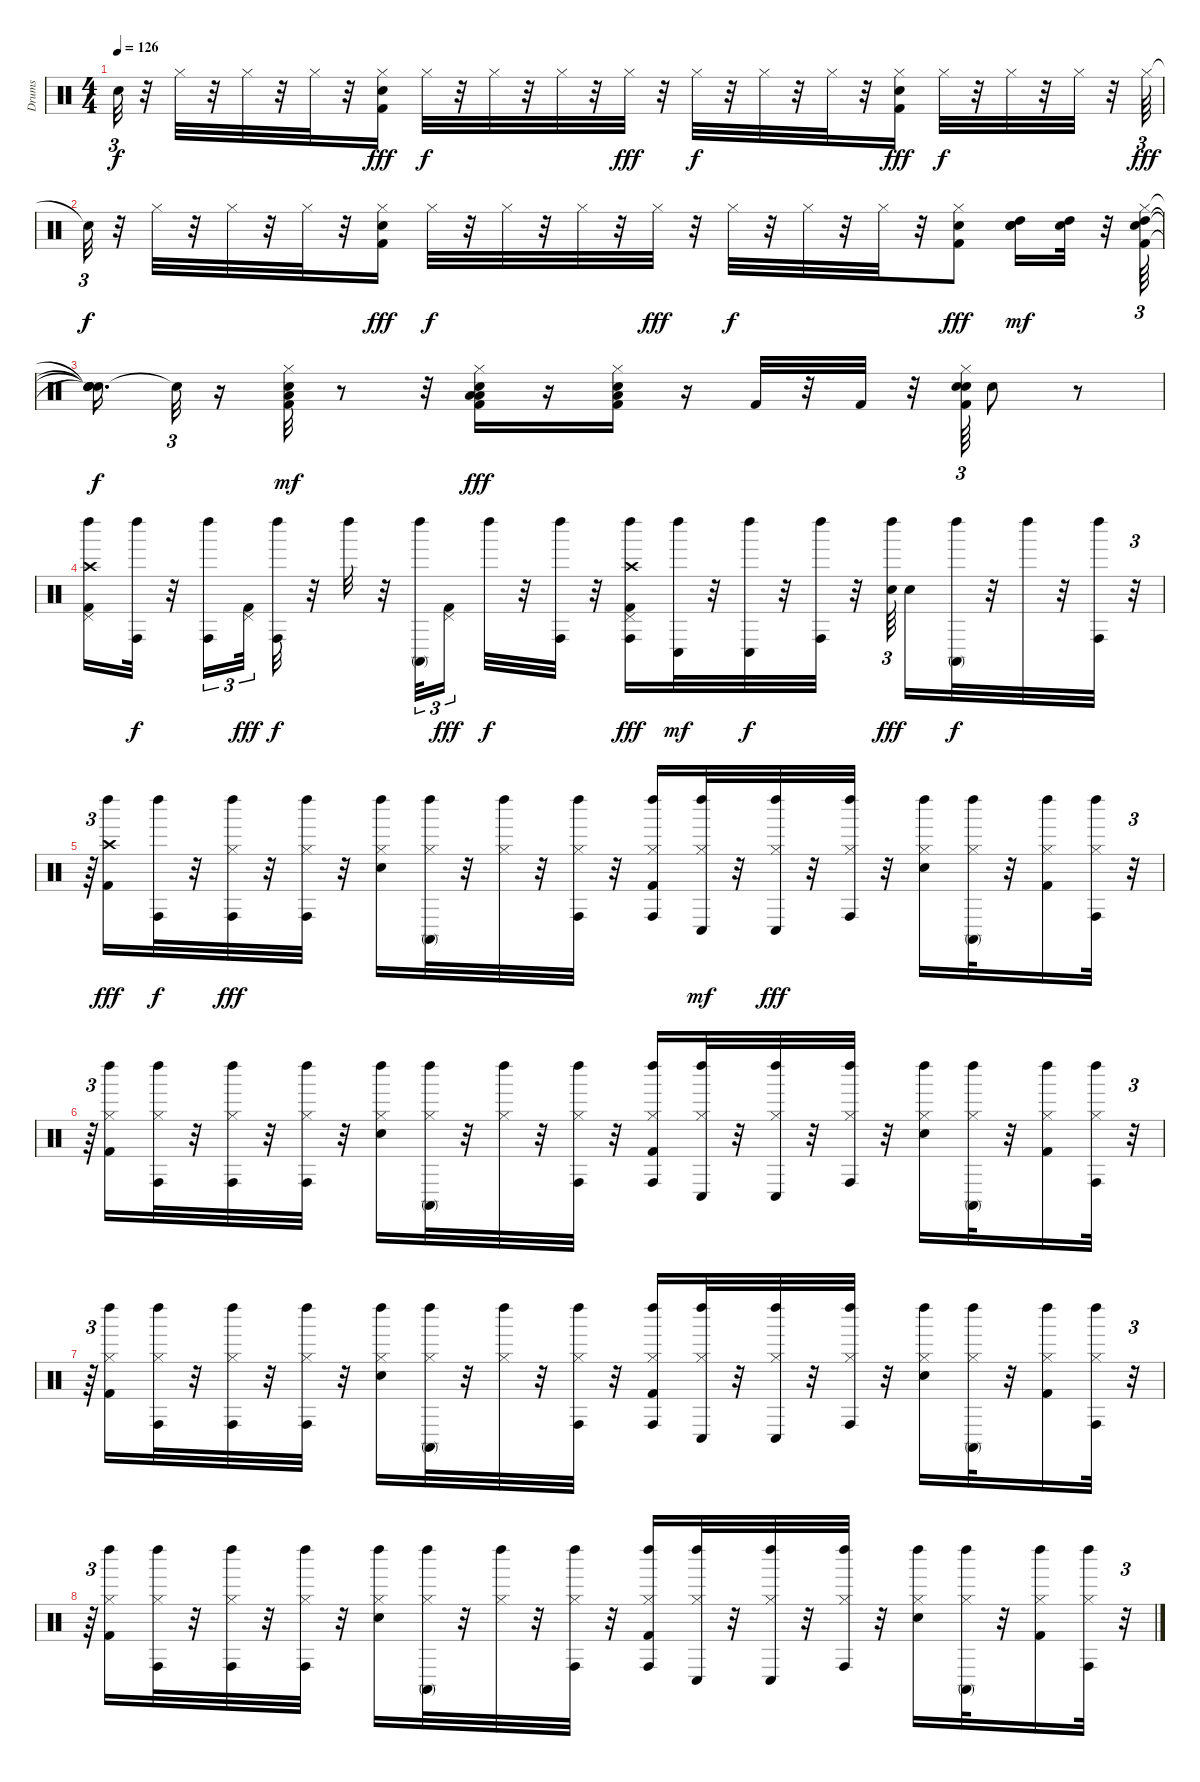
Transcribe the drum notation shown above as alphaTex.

\track ("Drums" "Drums") {instrument percussion}
\staff {score}
\articulation defaults
\ts (4 4)
\tempo 126
\clef neutral
\ks c "Snare (hit)"{t}.32{tu (3 2) dy f}
r.32 "Hi-Hat (closed)".32 r.32 "Hi-Hat (closed)".32 r.32 "Hi-Hat (closed)".32 r.32 ("Kick (hit) 2" "Hi-Hat (closed)" "Hand Clap (hit)").16{dy fff} "Hi-Hat (closed)".32{dy f} r.32 "Hi-Hat (closed)".32 r.32 "Hi-Hat (closed)".32 r.32 "Hi-Hat (closed)".32{dy fff} r.32 "Hi-Hat (closed)".32{dy f} r.32 "Hi-Hat (closed)".32 r.32 "Hi-Hat (closed)".32 r.32 ("Kick (hit) 2" "Hand Clap (hit)" "Hi-Hat (closed)").16{dy fff} "Hi-Hat (closed)".32{dy f} r.32 "Hi-Hat (closed)".32 r.32 "Hi-Hat (closed)".32 r.32 "Hi-Hat (closed)".64{tu (3 2) dy fff} |
"Snare (hit)"{t}.32{tu (3 2) dy f} r.32 "Hi-Hat (closed)".32 r.32 "Hi-Hat (closed)".32 r.32 "Hi-Hat (closed)".32 r.32 ("Hand Clap (hit)" "Hi-Hat (closed)" "Kick (hit) 2").16{dy fff} "Hi-Hat (closed)".32{dy f} r.32 "Hi-Hat (closed)".32 r.32 "Hi-Hat (closed)".32 r.32 "Hi-Hat (closed)".32{dy fff} r.32 "Hi-Hat (closed)".32{dy f} r.32 "Hi-Hat (closed)".32 r.32 "Hi-Hat (closed)".32 r.32 ("Hi-Hat (closed)" "Kick (hit) 2" "Hand Clap (hit)").8{dy fff} ("High Tom (hit)" "Hand Clap (hit)" "Electric Snare (hit)").16{dy mf} ("Electric Snare (hit)" "High Tom (hit)").32 r.32 ("Kick (hit) 2" "Electric Snare (hit)" "Hi-Hat (closed)" "High Tom (hit)").64{tu (3 2)} |
("Snare (hit)"{t} "Snare (hit)"{t} "Snare (hit)"{t} "Snare (hit)"{t}).16{d dy f} "Snare (hit)"{t}.32{tu (3 2)} r.16 ("Electric Snare (hit)" "Kick (hit) 2" "Hi-Hat (closed)" "Low Tom (hit)").32{dy mf} r.8 r.32 ("Low Tom (hit)" "Hi-Hat (closed)" "Low Floor Tom (hit)" "Electric Snare (hit)" "Kick (hit) 2").16{dy fff} r.16 ("Low Floor Tom (hit)" "Electric Snare (hit)" "Kick (hit) 2" "Hi-Hat (closed)").16 r.16 "Kick (hit) 2".32 r.32 "Kick (hit) 2".32 r.32 ("Kick (hit) 2" "Snare (hit) 2" "Hand Clap (hit)" "Hi-Hat (closed)").64{tu (3 2)} "Snare (hit) 2".8 r.8 |
("Kick (hit) 2" "Left Maraca (hit)" "Crash high (hit)" "Pedal Hi-Hat (hit)").16 ("Conga high (hit)" "Left Maraca (hit)").32{dy f} r.32 ("Left Maraca (hit)" "Conga high (hit)").16{tu (3 2)} ("Kick (hit) 2" "Pedal Hi-Hat (hit)").32{tu (3 2) dy fff} ("Conga high (hit)" "Left Maraca (hit)").32{dy f} r.32 "Left Maraca (hit)".32 r.32 ("Conga high (mute)" "Left Maraca (hit)").32{tu (3 2)} ("Kick (hit) 2" "Pedal Hi-Hat (hit)").16{tu (3 2) dy fff} "Left Maraca (hit)".32{dy f} r.32 ("Conga high (hit)" "Left Maraca (hit)").32 r.32 ("Pedal Hi-Hat (hit)" "Crash high (hit)" "Left Maraca (hit)" "Kick (hit) 2" "Conga high (hit)").16{dy fff} ("Left Maraca (hit)" "Conga low (hit)").32{dy mf} r.32 ("Conga low (hit)" "Left Maraca (hit)").32{dy f} r.32 ("Conga high (hit)" "Left Maraca (hit)").32 r.32 ("Snare (hit) 2" "Left Maraca (hit)").64{tu (3 2) dy fff} "Snare (hit) 2".16 ("Left Maraca (hit)" "Conga high (mute)").32{dy f} r.32 "Left Maraca (hit)".32 r.32 ("Conga high (hit)" "Left Maraca (hit)").32 r.32{tu (3 2)} |
r.64{tu (3 2)} ("Crash high (hit)" "Kick (hit) 2" "Left Maraca (hit)").16{dy fff} ("Conga high (hit)" "Left Maraca (hit)").32{dy f} r.32 ("Conga high (hit)" "Hi-Hat (closed)" "Left Maraca (hit)").32{dy fff} r.32 ("Hi-Hat (closed)" "Conga high (hit)" "Left Maraca (hit)").32 r.32 ("Snare (hit) 2" "Hi-Hat (closed)" "Left Maraca (hit)").16 ("Conga high (mute)" "Left Maraca (hit)" "Hi-Hat (closed)").32 r.32 ("Hi-Hat (closed)" "Left Maraca (hit)").32 r.32 ("Hi-Hat (closed)" "Left Maraca (hit)" "Conga high (hit)").32 r.32 ("Left Maraca (hit)" "Kick (hit) 2" "Conga high (hit)" "Hi-Hat (closed)").16 ("Hi-Hat (closed)" "Left Maraca (hit)" "Conga low (hit)").32{dy mf} r.32 ("Hi-Hat (closed)" "Left Maraca (hit)" "Conga low (hit)").32{dy fff} r.32 ("Left Maraca (hit)" "Conga high (hit)" "Hi-Hat (closed)").32 r.32 ("Snare (hit) 2" "Left Maraca (hit)" "Hi-Hat (closed)").16 ("Hi-Hat (closed)" "Left Maraca (hit)" "Conga high (mute)").32 r.32 ("Kick (hit) 2" "Hi-Hat (closed)" "Left Maraca (hit)").16 ("Hi-Hat (closed)" "Left Maraca (hit)" "Conga high (hit)").32 r.32{tu (3 2)} |
r.64{tu (3 2)} ("Kick (hit) 2" "Hi-Hat (closed)" "Left Maraca (hit)").16 ("Conga high (hit)" "Hi-Hat (closed)" "Left Maraca (hit)").32 r.32 ("Left Maraca (hit)" "Hi-Hat (closed)" "Conga high (hit)").32 r.32 ("Left Maraca (hit)" "Conga high (hit)" "Hi-Hat (closed)").32 r.32 ("Left Maraca (hit)" "Hi-Hat (closed)" "Snare (hit) 2").16 ("Hi-Hat (closed)" "Conga high (mute)" "Left Maraca (hit)").32 r.32 ("Hi-Hat (closed)" "Left Maraca (hit)").32 r.32 ("Conga high (hit)" "Left Maraca (hit)" "Hi-Hat (closed)").32 r.32 ("Hi-Hat (closed)" "Left Maraca (hit)" "Conga high (hit)" "Kick (hit) 2").16 ("Left Maraca (hit)" "Conga low (hit)" "Hi-Hat (closed)").32 r.32 ("Conga low (hit)" "Left Maraca (hit)" "Hi-Hat (closed)").32 r.32 ("Hi-Hat (closed)" "Left Maraca (hit)" "Conga high (hit)").32 r.32 ("Left Maraca (hit)" "Snare (hit) 2" "Hi-Hat (closed)").16 ("Hi-Hat (closed)" "Conga high (mute)" "Left Maraca (hit)").32 r.32 ("Kick (hit) 2" "Left Maraca (hit)" "Hi-Hat (closed)").16 ("Left Maraca (hit)" "Conga high (hit)" "Hi-Hat (closed)").32 r.32{tu (3 2)} |
r.64{tu (3 2)} ("Left Maraca (hit)" "Kick (hit) 2" "Hi-Hat (closed)").16 ("Conga high (hit)" "Left Maraca (hit)" "Hi-Hat (closed)").32 r.32 ("Conga high (hit)" "Left Maraca (hit)" "Hi-Hat (closed)").32 r.32 ("Left Maraca (hit)" "Hi-Hat (closed)" "Conga high (hit)").32 r.32 ("Left Maraca (hit)" "Snare (hit) 2" "Hi-Hat (closed)").16 ("Left Maraca (hit)" "Conga high (mute)" "Hi-Hat (closed)").32 r.32 ("Left Maraca (hit)" "Hi-Hat (closed)").32 r.32 ("Hi-Hat (closed)" "Left Maraca (hit)" "Conga high (hit)").32 r.32 ("Conga high (hit)" "Hi-Hat (closed)" "Left Maraca (hit)" "Kick (hit) 2").16 ("Left Maraca (hit)" "Conga low (hit)" "Hi-Hat (closed)").32 r.32 ("Conga low (hit)" "Hi-Hat (closed)" "Left Maraca (hit)").32 r.32 ("Left Maraca (hit)" "Conga high (hit)" "Hi-Hat (closed)").32 r.32 ("Left Maraca (hit)" "Hi-Hat (closed)" "Snare (hit) 2").16 ("Hi-Hat (closed)" "Left Maraca (hit)" "Conga high (mute)").32 r.32 ("Hi-Hat (closed)" "Kick (hit) 2" "Left Maraca (hit)").16 ("Hi-Hat (closed)" "Conga high (hit)" "Left Maraca (hit)").32 r.32{tu (3 2)} |
r.64{tu (3 2)} ("Left Maraca (hit)" "Hi-Hat (closed)" "Kick (hit) 2").16 ("Left Maraca (hit)" "Conga high (hit)" "Hi-Hat (closed)").32 r.32 ("Left Maraca (hit)" "Hi-Hat (closed)" "Conga high (hit)").32 r.32 ("Left Maraca (hit)" "Conga high (hit)" "Hi-Hat (closed)").32 r.32 ("Hi-Hat (closed)" "Left Maraca (hit)" "Snare (hit) 2").16 ("Hi-Hat (closed)" "Conga high (mute)" "Left Maraca (hit)").32 r.32 ("Left Maraca (hit)" "Hi-Hat (closed)").32 r.32 ("Left Maraca (hit)" "Conga high (hit)" "Hi-Hat (closed)").32 r.32 ("Hi-Hat (closed)" "Kick (hit) 2" "Left Maraca (hit)" "Conga high (hit)").16 ("Conga low (hit)" "Hi-Hat (closed)" "Left Maraca (hit)").32 r.32 ("Left Maraca (hit)" "Hi-Hat (closed)" "Conga low (hit)").32 r.32 ("Hi-Hat (closed)" "Conga high (hit)" "Left Maraca (hit)").32 r.32 ("Hi-Hat (closed)" "Left Maraca (hit)" "Snare (hit) 2").16 ("Conga high (mute)" "Hi-Hat (closed)" "Left Maraca (hit)").32 r.32 ("Hi-Hat (closed)" "Left Maraca (hit)" "Kick (hit) 2").16 ("Left Maraca (hit)" "Hi-Hat (closed)" "Conga high (hit)").32 r.32{tu (3 2)}
